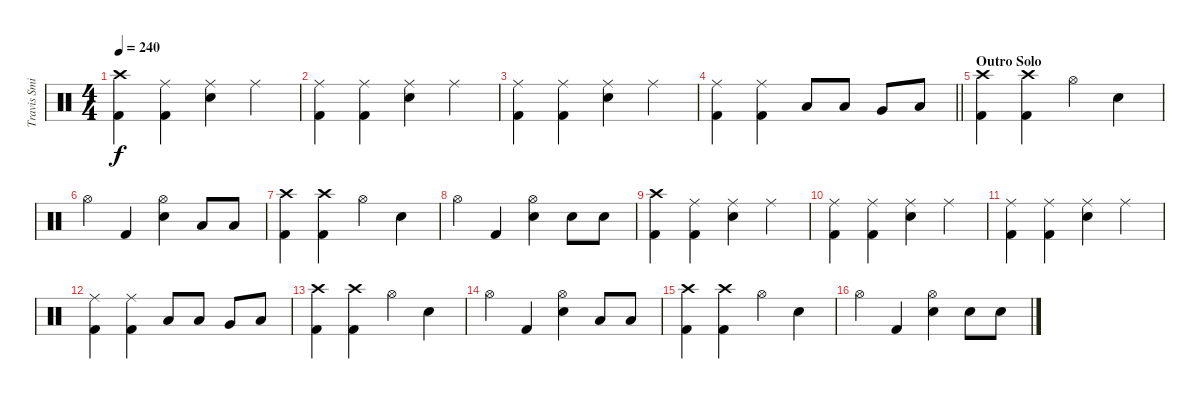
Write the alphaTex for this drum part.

\track ("Travis Smith" "Travis Smi") {instrument percussion}
\staff {score}
\articulation defaults
\ts (4 4)
\tempo 240
\clef neutral
\ks c
("Kick (hit) 2" "Crash high (hit)").4{dy f} ("Kick (hit) 2" "Ride (middle)").4 ("Snare (hit) 2" "Ride (middle)").4 "Ride (middle)".4 |
("Kick (hit) 2" "Ride (middle)").4 ("Kick (hit) 2" "Ride (middle)").4 ("Snare (hit) 2" "Ride (middle)").4 "Ride (middle)".4 |
("Kick (hit) 2" "Ride (middle)").4 ("Kick (hit) 2" "Ride (middle)").4 ("Snare (hit) 2" "Ride (middle)").4 "Ride (middle)".4 |
\barLineRight lightlight
("Kick (hit) 2" "Ride (middle)").4 ("Kick (hit) 2" "Ride (middle)").4 "Low Tom (hit)".8 "Low Tom (hit)".8 "Very Low Tom (hit)".8 "Low Floor Tom (hit)".8 |
\section ("" "Outro Solo")
("Kick (hit) 2" "Crash high (hit)").4 ("Kick (hit) 2" "Crash high (hit)").4 "Hi-Hat (open)".4 "Snare (hit) 2".4 |
"Hi-Hat (open)".4 "Kick (hit) 2".4 ("Snare (hit) 2" "Hi-Hat (open)").4 "Low Tom (hit)".8 "Low Tom (hit)".8 |
("Kick (hit) 2" "Crash high (hit)").4 ("Kick (hit) 2" "Crash high (hit)").4 "Hi-Hat (open)".4 "Snare (hit) 2".4 |
"Hi-Hat (open)".4 "Kick (hit) 2".4 ("Snare (hit) 2" "Hi-Hat (open)").4 "Snare (hit) 2".8 "Snare (hit) 2".8 |
("Kick (hit) 2" "Crash high (hit)").4 ("Kick (hit) 2" "Ride (middle)").4 ("Snare (hit) 2" "Ride (middle)").4 "Ride (middle)".4 |
("Kick (hit) 2" "Ride (middle)").4 ("Kick (hit) 2" "Ride (middle)").4 ("Snare (hit) 2" "Ride (middle)").4 "Ride (middle)".4 |
("Kick (hit) 2" "Ride (middle)").4 ("Kick (hit) 2" "Ride (middle)").4 ("Snare (hit) 2" "Ride (middle)").4 "Ride (middle)".4 |
("Kick (hit) 2" "Ride (middle)").4 ("Kick (hit) 2" "Ride (middle)").4 "Low Tom (hit)".8 "Low Tom (hit)".8 "Very Low Tom (hit)".8 "Low Floor Tom (hit)".8 |
("Kick (hit) 2" "Crash high (hit)").4 ("Kick (hit) 2" "Crash high (hit)").4 "Hi-Hat (open)".4 "Snare (hit) 2".4 |
"Hi-Hat (open)".4 "Kick (hit) 2".4 ("Snare (hit) 2" "Hi-Hat (open)").4 "Low Tom (hit)".8 "Low Tom (hit)".8 |
("Kick (hit) 2" "Crash high (hit)").4 ("Kick (hit) 2" "Crash high (hit)").4 "Hi-Hat (open)".4 "Snare (hit) 2".4 |
"Hi-Hat (open)".4 "Kick (hit) 2".4 ("Snare (hit) 2" "Hi-Hat (open)").4 "Snare (hit) 2".8 "Snare (hit) 2".8
